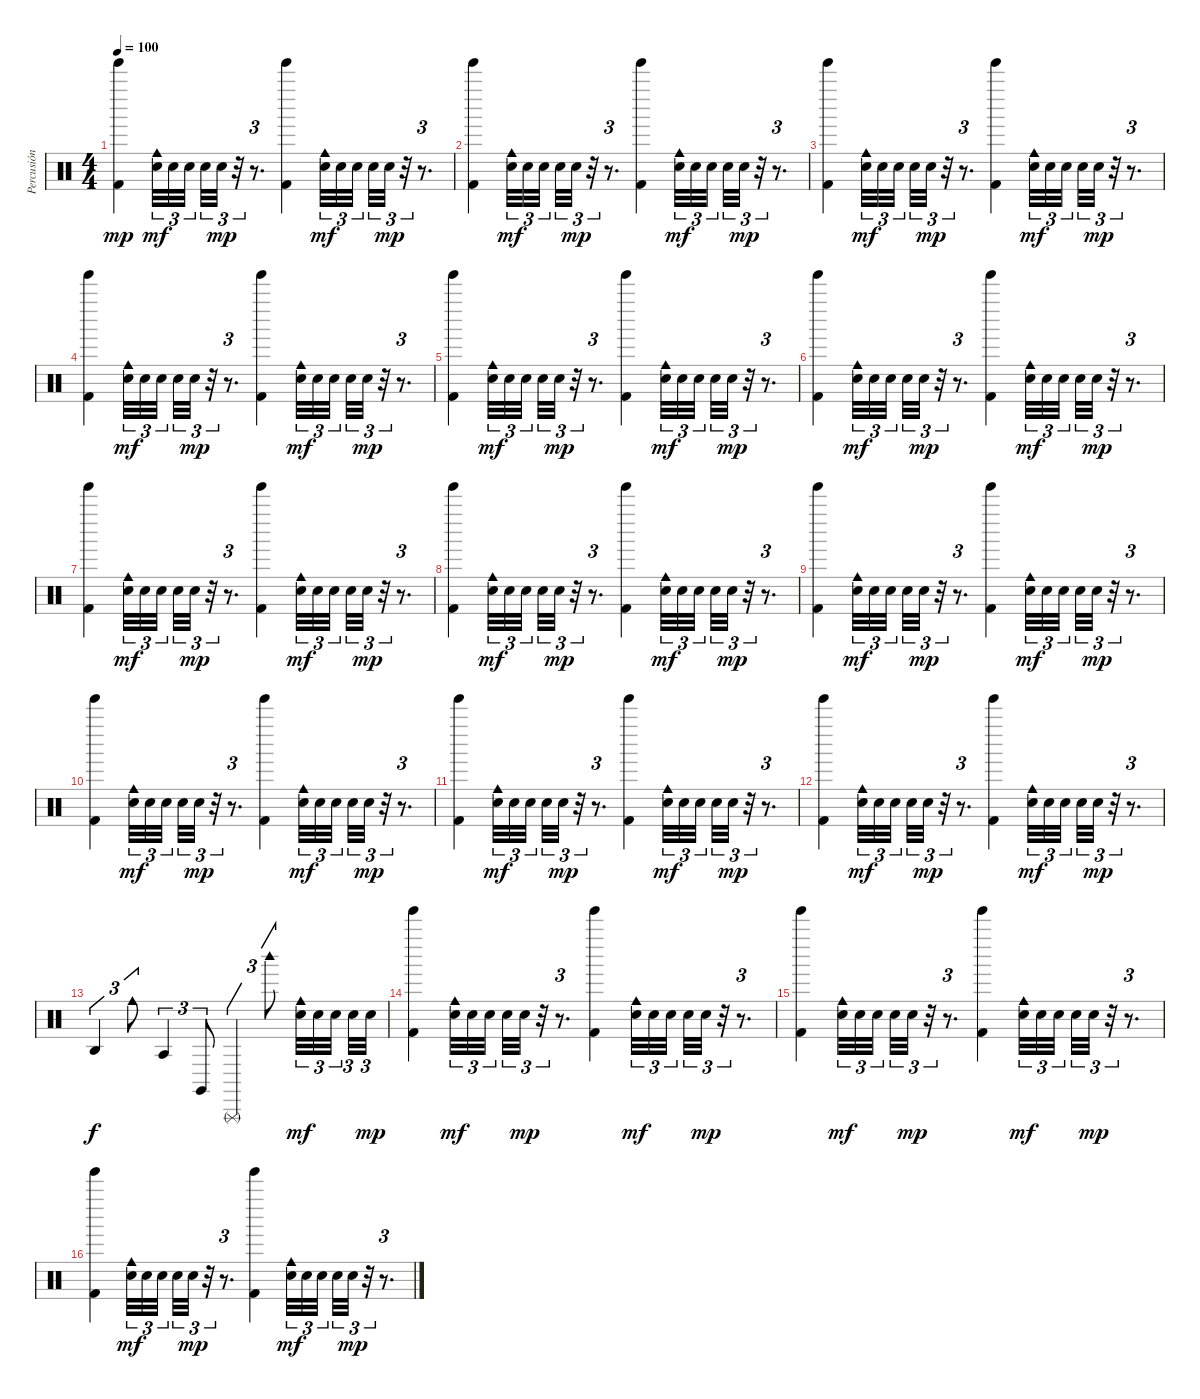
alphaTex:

\track ("Percusión" "Percusión") {instrument percussion}
\staff {score}
\articulation defaults
\ts (4 4)
\tempo 100
\clef neutral
\ks c
("Tinkle Bell (hit)" "Kick (hit) 2").4{dy mp} ("Cowbell medium (hit)" "Electric Snare (hit)").32{tu (3 2) dy mf} "Electric Snare (hit)".32{tu (3 2)} "Electric Snare (hit)".32{tu (3 2) beam splitsecondary} "Electric Snare (hit)".32{tu (3 2)} "Electric Snare (hit)".32{tu (3 2) dy mp} r.32{tu (3 2)} r.8{d tu (3 2)} ("Tinkle Bell (hit)" "Kick (hit) 2").4 ("Cowbell medium (hit)" "Electric Snare (hit)").32{tu (3 2) dy mf} "Electric Snare (hit)".32{tu (3 2)} "Electric Snare (hit)".32{tu (3 2) beam splitsecondary} "Electric Snare (hit)".32{tu (3 2)} "Electric Snare (hit)".32{tu (3 2) dy mp} r.32{tu (3 2)} r.8{d tu (3 2)} |
("Tinkle Bell (hit)" "Kick (hit) 2").4 ("Cowbell medium (hit)" "Electric Snare (hit)").32{tu (3 2) dy mf} "Electric Snare (hit)".32{tu (3 2)} "Electric Snare (hit)".32{tu (3 2) beam splitsecondary} "Electric Snare (hit)".32{tu (3 2)} "Electric Snare (hit)".32{tu (3 2) dy mp} r.32{tu (3 2)} r.8{d tu (3 2)} ("Tinkle Bell (hit)" "Kick (hit) 2").4 ("Cowbell medium (hit)" "Electric Snare (hit)").32{tu (3 2) dy mf} "Electric Snare (hit)".32{tu (3 2)} "Electric Snare (hit)".32{tu (3 2) beam splitsecondary} "Electric Snare (hit)".32{tu (3 2)} "Electric Snare (hit)".32{tu (3 2) dy mp} r.32{tu (3 2)} r.8{d tu (3 2)} |
("Tinkle Bell (hit)" "Kick (hit) 2").4 ("Cowbell medium (hit)" "Electric Snare (hit)").32{tu (3 2) dy mf} "Electric Snare (hit)".32{tu (3 2)} "Electric Snare (hit)".32{tu (3 2) beam splitsecondary} "Electric Snare (hit)".32{tu (3 2)} "Electric Snare (hit)".32{tu (3 2) dy mp} r.32{tu (3 2)} r.8{d tu (3 2)} ("Tinkle Bell (hit)" "Kick (hit) 2").4 ("Cowbell medium (hit)" "Electric Snare (hit)").32{tu (3 2) dy mf} "Electric Snare (hit)".32{tu (3 2)} "Electric Snare (hit)".32{tu (3 2) beam splitsecondary} "Electric Snare (hit)".32{tu (3 2)} "Electric Snare (hit)".32{tu (3 2) dy mp} r.32{tu (3 2)} r.8{d tu (3 2)} |
("Tinkle Bell (hit)" "Kick (hit) 2").4 ("Cowbell medium (hit)" "Electric Snare (hit)").32{tu (3 2) dy mf} "Electric Snare (hit)".32{tu (3 2)} "Electric Snare (hit)".32{tu (3 2) beam splitsecondary} "Electric Snare (hit)".32{tu (3 2)} "Electric Snare (hit)".32{tu (3 2) dy mp} r.32{tu (3 2)} r.8{d tu (3 2)} ("Tinkle Bell (hit)" "Kick (hit) 2").4 ("Cowbell medium (hit)" "Electric Snare (hit)").32{tu (3 2) dy mf} "Electric Snare (hit)".32{tu (3 2)} "Electric Snare (hit)".32{tu (3 2) beam splitsecondary} "Electric Snare (hit)".32{tu (3 2)} "Electric Snare (hit)".32{tu (3 2) dy mp} r.32{tu (3 2)} r.8{d tu (3 2)} |
("Tinkle Bell (hit)" "Kick (hit) 2").4 ("Cowbell medium (hit)" "Electric Snare (hit)").32{tu (3 2) dy mf} "Electric Snare (hit)".32{tu (3 2)} "Electric Snare (hit)".32{tu (3 2) beam splitsecondary} "Electric Snare (hit)".32{tu (3 2)} "Electric Snare (hit)".32{tu (3 2) dy mp} r.32{tu (3 2)} r.8{d tu (3 2)} ("Tinkle Bell (hit)" "Kick (hit) 2").4 ("Cowbell medium (hit)" "Electric Snare (hit)").32{tu (3 2) dy mf} "Electric Snare (hit)".32{tu (3 2)} "Electric Snare (hit)".32{tu (3 2) beam splitsecondary} "Electric Snare (hit)".32{tu (3 2)} "Electric Snare (hit)".32{tu (3 2) dy mp} r.32{tu (3 2)} r.8{d tu (3 2)} |
("Tinkle Bell (hit)" "Kick (hit) 2").4 ("Cowbell medium (hit)" "Electric Snare (hit)").32{tu (3 2) dy mf} "Electric Snare (hit)".32{tu (3 2)} "Electric Snare (hit)".32{tu (3 2) beam splitsecondary} "Electric Snare (hit)".32{tu (3 2)} "Electric Snare (hit)".32{tu (3 2) dy mp} r.32{tu (3 2)} r.8{d tu (3 2)} ("Tinkle Bell (hit)" "Kick (hit) 2").4 ("Cowbell medium (hit)" "Electric Snare (hit)").32{tu (3 2) dy mf} "Electric Snare (hit)".32{tu (3 2)} "Electric Snare (hit)".32{tu (3 2) beam splitsecondary} "Electric Snare (hit)".32{tu (3 2)} "Electric Snare (hit)".32{tu (3 2) dy mp} r.32{tu (3 2)} r.8{d tu (3 2)} |
("Tinkle Bell (hit)" "Kick (hit) 2").4 ("Cowbell medium (hit)" "Electric Snare (hit)").32{tu (3 2) dy mf} "Electric Snare (hit)".32{tu (3 2)} "Electric Snare (hit)".32{tu (3 2) beam splitsecondary} "Electric Snare (hit)".32{tu (3 2)} "Electric Snare (hit)".32{tu (3 2) dy mp} r.32{tu (3 2)} r.8{d tu (3 2)} ("Tinkle Bell (hit)" "Kick (hit) 2").4 ("Cowbell medium (hit)" "Electric Snare (hit)").32{tu (3 2) dy mf} "Electric Snare (hit)".32{tu (3 2)} "Electric Snare (hit)".32{tu (3 2) beam splitsecondary} "Electric Snare (hit)".32{tu (3 2)} "Electric Snare (hit)".32{tu (3 2) dy mp} r.32{tu (3 2)} r.8{d tu (3 2)} |
("Tinkle Bell (hit)" "Kick (hit) 2").4 ("Cowbell medium (hit)" "Electric Snare (hit)").32{tu (3 2) dy mf} "Electric Snare (hit)".32{tu (3 2)} "Electric Snare (hit)".32{tu (3 2) beam splitsecondary} "Electric Snare (hit)".32{tu (3 2)} "Electric Snare (hit)".32{tu (3 2) dy mp} r.32{tu (3 2)} r.8{d tu (3 2)} ("Tinkle Bell (hit)" "Kick (hit) 2").4 ("Cowbell medium (hit)" "Electric Snare (hit)").32{tu (3 2) dy mf} "Electric Snare (hit)".32{tu (3 2)} "Electric Snare (hit)".32{tu (3 2) beam splitsecondary} "Electric Snare (hit)".32{tu (3 2)} "Electric Snare (hit)".32{tu (3 2) dy mp} r.32{tu (3 2)} r.8{d tu (3 2)} |
("Tinkle Bell (hit)" "Kick (hit) 2").4 ("Cowbell medium (hit)" "Electric Snare (hit)").32{tu (3 2) dy mf} "Electric Snare (hit)".32{tu (3 2)} "Electric Snare (hit)".32{tu (3 2) beam splitsecondary} "Electric Snare (hit)".32{tu (3 2)} "Electric Snare (hit)".32{tu (3 2) dy mp} r.32{tu (3 2)} r.8{d tu (3 2)} ("Tinkle Bell (hit)" "Kick (hit) 2").4 ("Cowbell medium (hit)" "Electric Snare (hit)").32{tu (3 2) dy mf} "Electric Snare (hit)".32{tu (3 2)} "Electric Snare (hit)".32{tu (3 2) beam splitsecondary} "Electric Snare (hit)".32{tu (3 2)} "Electric Snare (hit)".32{tu (3 2) dy mp} r.32{tu (3 2)} r.8{d tu (3 2)} |
("Tinkle Bell (hit)" "Kick (hit) 2").4 ("Cowbell medium (hit)" "Electric Snare (hit)").32{tu (3 2) dy mf} "Electric Snare (hit)".32{tu (3 2)} "Electric Snare (hit)".32{tu (3 2) beam splitsecondary} "Electric Snare (hit)".32{tu (3 2)} "Electric Snare (hit)".32{tu (3 2) dy mp} r.32{tu (3 2)} r.8{d tu (3 2)} ("Tinkle Bell (hit)" "Kick (hit) 2").4 ("Cowbell medium (hit)" "Electric Snare (hit)").32{tu (3 2) dy mf} "Electric Snare (hit)".32{tu (3 2)} "Electric Snare (hit)".32{tu (3 2) beam splitsecondary} "Electric Snare (hit)".32{tu (3 2)} "Electric Snare (hit)".32{tu (3 2) dy mp} r.32{tu (3 2)} r.8{d tu (3 2)} |
("Tinkle Bell (hit)" "Kick (hit) 2").4 ("Cowbell medium (hit)" "Electric Snare (hit)").32{tu (3 2) dy mf} "Electric Snare (hit)".32{tu (3 2)} "Electric Snare (hit)".32{tu (3 2) beam splitsecondary} "Electric Snare (hit)".32{tu (3 2)} "Electric Snare (hit)".32{tu (3 2) dy mp} r.32{tu (3 2)} r.8{d tu (3 2)} ("Tinkle Bell (hit)" "Kick (hit) 2").4 ("Cowbell medium (hit)" "Electric Snare (hit)").32{tu (3 2) dy mf} "Electric Snare (hit)".32{tu (3 2)} "Electric Snare (hit)".32{tu (3 2) beam splitsecondary} "Electric Snare (hit)".32{tu (3 2)} "Electric Snare (hit)".32{tu (3 2) dy mp} r.32{tu (3 2)} r.8{d tu (3 2)} |
("Tinkle Bell (hit)" "Kick (hit) 2").4 ("Cowbell medium (hit)" "Electric Snare (hit)").32{tu (3 2) dy mf} "Electric Snare (hit)".32{tu (3 2)} "Electric Snare (hit)".32{tu (3 2) beam splitsecondary} "Electric Snare (hit)".32{tu (3 2)} "Electric Snare (hit)".32{tu (3 2) dy mp} r.32{tu (3 2)} r.8{d tu (3 2)} ("Tinkle Bell (hit)" "Kick (hit) 2").4 ("Cowbell medium (hit)" "Electric Snare (hit)").32{tu (3 2) dy mf} "Electric Snare (hit)".32{tu (3 2)} "Electric Snare (hit)".32{tu (3 2) beam splitsecondary} "Electric Snare (hit)".32{tu (3 2)} "Electric Snare (hit)".32{tu (3 2) dy mp} r.32{tu (3 2)} r.8{d tu (3 2)} |
"Agogo high (hit)".4{tu (3 2) dy f} "Cowbell medium (hit)".8{tu (3 2)} "Agogo tow (hit)".4{tu (3 2)} "Claves (hit)".8{tu (3 2)} "Triangle (rnute)".4{tu (3 2)} "Woodblock high (hit)".8{tu (3 2)} ("Cowbell medium (hit)" "Electric Snare (hit)").32{tu (3 2) dy mf} "Electric Snare (hit)".32{tu (3 2)} "Electric Snare (hit)".32{tu (3 2) beam splitsecondary} "Electric Snare (hit)".32{tu (3 2)} "Electric Snare (hit)".32{tu (3 2) dy mp} |
("Tinkle Bell (hit)" "Kick (hit) 2").4 ("Cowbell medium (hit)" "Electric Snare (hit)").32{tu (3 2) dy mf} "Electric Snare (hit)".32{tu (3 2)} "Electric Snare (hit)".32{tu (3 2) beam splitsecondary} "Electric Snare (hit)".32{tu (3 2)} "Electric Snare (hit)".32{tu (3 2) dy mp} r.32{tu (3 2)} r.8{d tu (3 2)} ("Tinkle Bell (hit)" "Kick (hit) 2").4 ("Cowbell medium (hit)" "Electric Snare (hit)").32{tu (3 2) dy mf} "Electric Snare (hit)".32{tu (3 2)} "Electric Snare (hit)".32{tu (3 2) beam splitsecondary} "Electric Snare (hit)".32{tu (3 2)} "Electric Snare (hit)".32{tu (3 2) dy mp} r.32{tu (3 2)} r.8{d tu (3 2)} |
("Tinkle Bell (hit)" "Kick (hit) 2").4 ("Cowbell medium (hit)" "Electric Snare (hit)").32{tu (3 2) dy mf} "Electric Snare (hit)".32{tu (3 2)} "Electric Snare (hit)".32{tu (3 2) beam splitsecondary} "Electric Snare (hit)".32{tu (3 2)} "Electric Snare (hit)".32{tu (3 2) dy mp} r.32{tu (3 2)} r.8{d tu (3 2)} ("Tinkle Bell (hit)" "Kick (hit) 2").4 ("Cowbell medium (hit)" "Electric Snare (hit)").32{tu (3 2) dy mf} "Electric Snare (hit)".32{tu (3 2)} "Electric Snare (hit)".32{tu (3 2) beam splitsecondary} "Electric Snare (hit)".32{tu (3 2)} "Electric Snare (hit)".32{tu (3 2) dy mp} r.32{tu (3 2)} r.8{d tu (3 2)} |
("Tinkle Bell (hit)" "Kick (hit) 2").4 ("Cowbell medium (hit)" "Electric Snare (hit)").32{tu (3 2) dy mf} "Electric Snare (hit)".32{tu (3 2)} "Electric Snare (hit)".32{tu (3 2) beam splitsecondary} "Electric Snare (hit)".32{tu (3 2)} "Electric Snare (hit)".32{tu (3 2) dy mp} r.32{tu (3 2)} r.8{d tu (3 2)} ("Tinkle Bell (hit)" "Kick (hit) 2").4 ("Cowbell medium (hit)" "Electric Snare (hit)").32{tu (3 2) dy mf} "Electric Snare (hit)".32{tu (3 2)} "Electric Snare (hit)".32{tu (3 2) beam splitsecondary} "Electric Snare (hit)".32{tu (3 2)} "Electric Snare (hit)".32{tu (3 2) dy mp} r.32{tu (3 2)} r.8{d tu (3 2)}
